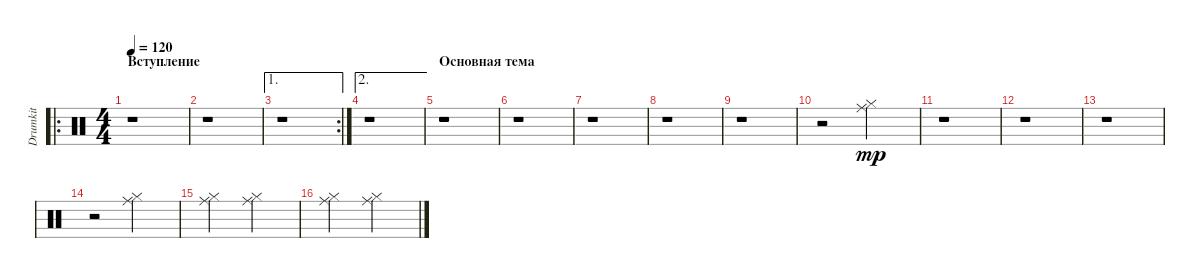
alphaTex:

\track ("Drumkit" "Drumkit") {instrument percussion}
\staff {score}
\articulation defaults
\ro
\ts (4 4)
\section ("" "Вступление")
\tempo 120
\clef neutral
\ks c
r.1{dy mp} |
r.1 |
\ae 1
\rc 2
r.1 |
\ae 2
r.1 |
\section ("" "Основная тема")
r.1 |
r.1 |
r.1 |
r.1 |
r.1 |
r.2 ("Hi-Hat (closed)" "Ride (middle)").2 |
r.1 |
r.1 |
r.1 |
r.2 ("Hi-Hat (closed)" "Ride (middle)").2 |
("Hi-Hat (closed)" "Ride (middle)").2 ("Hi-Hat (closed)" "Ride (middle)").2 |
("Hi-Hat (closed)" "Ride (middle)").2 ("Hi-Hat (closed)" "Ride (middle)").2
